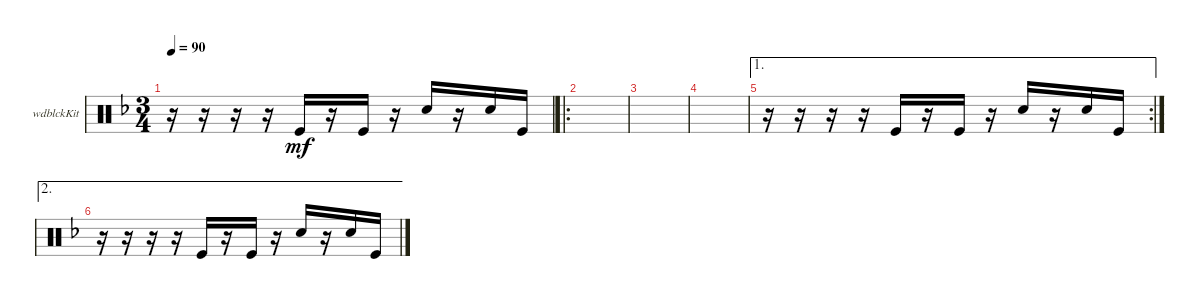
\defaultSystemsLayout 4
\bracketExtendMode groupsimilarinstruments
\firstSystemTrackNameOrientation horizontal
\otherSystemsTrackNameOrientation horizontal
\track ("Woodblock" "wdblckKit") {instrument percussion}
\staff {score}
\articulation defaults
\ts (3 4)
\tempo 90
\clef neutral
\ks dminor
r.16{dy mf} r.16 r.16 r.16 "Kick (hit)".16 r.16 "Kick (hit)".16 r.16 "Snare (hit) 2".16 r.16 "Snare (hit) 2".16 "Kick (hit)".16 |
\ro
|
|
|
\ae 1
\rc 2
r.16 r.16 r.16 r.16 "Kick (hit)".16 r.16 "Kick (hit)".16 r.16 "Snare (hit) 2".16 r.16 "Snare (hit) 2".16 "Kick (hit)".16 |
\ae 2
r.16 r.16 r.16 r.16 "Kick (hit)".16 r.16 "Kick (hit)".16 r.16 "Snare (hit) 2".16 r.16 "Snare (hit) 2".16 "Kick (hit)".16
